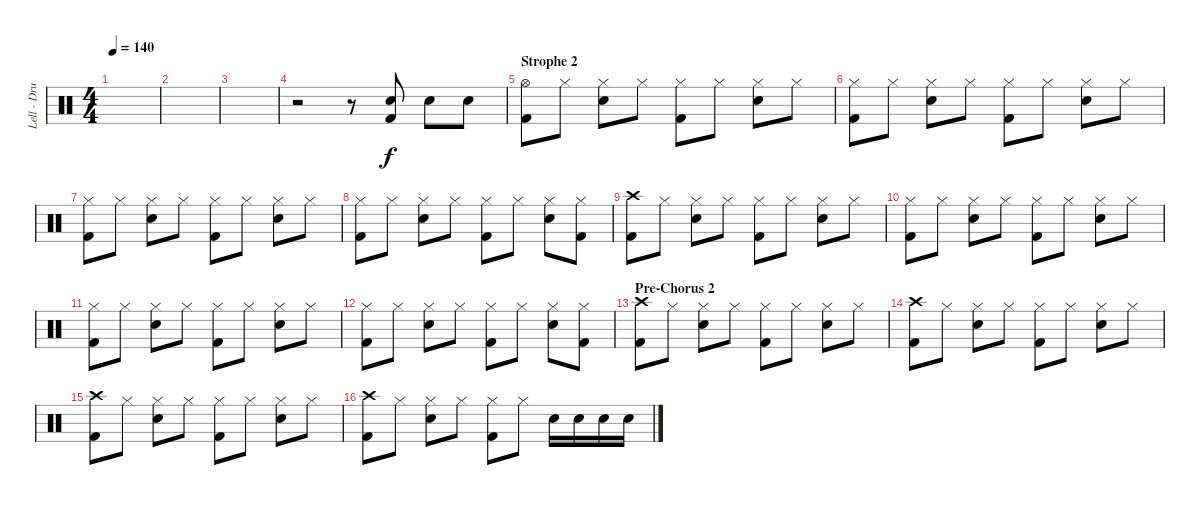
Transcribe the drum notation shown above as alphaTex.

\track ("Lell - Drums" "Lell - Dru") {instrument percussion}
\staff {score}
\articulation defaults
\ts (4 4)
\tempo 140
\clef neutral
\ks c
|
|
|
r.2 r.8 ("Snare (hit) 2" "Kick (hit) 2").8 "Snare (hit) 2".8 "Snare (hit) 2".8 |
\section ("" "Strophe 2")
("Hi-Hat (open)" "Kick (hit) 2").8 "Hi-Hat (closed)".8 ("Hi-Hat (closed)" "Snare (hit) 2").8 "Hi-Hat (closed)".8 ("Hi-Hat (closed)" "Kick (hit) 2").8 "Hi-Hat (closed)".8 ("Hi-Hat (closed)" "Snare (hit) 2").8 "Hi-Hat (closed)".8 |
("Hi-Hat (closed)" "Kick (hit) 2").8 "Hi-Hat (closed)".8 ("Hi-Hat (closed)" "Snare (hit) 2").8 "Hi-Hat (closed)".8 ("Hi-Hat (closed)" "Kick (hit) 2").8 "Hi-Hat (closed)".8 ("Hi-Hat (closed)" "Snare (hit) 2").8 "Hi-Hat (closed)".8 |
("Hi-Hat (closed)" "Kick (hit) 2").8 "Hi-Hat (closed)".8 ("Hi-Hat (closed)" "Snare (hit) 2").8 "Hi-Hat (closed)".8 ("Hi-Hat (closed)" "Kick (hit) 2").8 "Hi-Hat (closed)".8 ("Hi-Hat (closed)" "Snare (hit) 2").8 "Hi-Hat (closed)".8 |
("Hi-Hat (closed)" "Kick (hit) 2").8 "Hi-Hat (closed)".8 ("Hi-Hat (closed)" "Snare (hit) 2").8 "Hi-Hat (closed)".8 ("Hi-Hat (closed)" "Kick (hit) 2").8 "Hi-Hat (closed)".8 ("Hi-Hat (closed)" "Snare (hit) 2").8 ("Hi-Hat (closed)" "Kick (hit) 2").8 |
("Crash high (hit)" "Kick (hit) 2").8 "Hi-Hat (closed)".8 ("Hi-Hat (closed)" "Snare (hit) 2").8 "Hi-Hat (closed)".8 ("Hi-Hat (closed)" "Kick (hit) 2").8 "Hi-Hat (closed)".8 ("Hi-Hat (closed)" "Snare (hit) 2").8 "Hi-Hat (closed)".8 |
("Hi-Hat (closed)" "Kick (hit) 2").8 "Hi-Hat (closed)".8 ("Hi-Hat (closed)" "Snare (hit) 2").8 "Hi-Hat (closed)".8 ("Hi-Hat (closed)" "Kick (hit) 2").8 "Hi-Hat (closed)".8 ("Hi-Hat (closed)" "Snare (hit) 2").8 "Hi-Hat (closed)".8 |
("Hi-Hat (closed)" "Kick (hit) 2").8 "Hi-Hat (closed)".8 ("Hi-Hat (closed)" "Snare (hit) 2").8 "Hi-Hat (closed)".8 ("Hi-Hat (closed)" "Kick (hit) 2").8 "Hi-Hat (closed)".8 ("Hi-Hat (closed)" "Snare (hit) 2").8 "Hi-Hat (closed)".8 |
("Hi-Hat (closed)" "Kick (hit) 2").8 "Hi-Hat (closed)".8 ("Hi-Hat (closed)" "Snare (hit) 2").8 "Hi-Hat (closed)".8 ("Hi-Hat (closed)" "Kick (hit) 2").8 "Hi-Hat (closed)".8 ("Hi-Hat (closed)" "Snare (hit) 2").8 ("Hi-Hat (closed)" "Kick (hit) 2").8 |
\section ("" "Pre-Chorus 2")
("Crash high (hit)" "Kick (hit) 2").8 "Hi-Hat (closed)".8 ("Hi-Hat (closed)" "Snare (hit) 2").8 "Hi-Hat (closed)".8 ("Hi-Hat (closed)" "Kick (hit) 2").8 "Hi-Hat (closed)".8 ("Hi-Hat (closed)" "Snare (hit) 2").8 "Hi-Hat (closed)".8 |
("Crash high (hit)" "Kick (hit) 2").8 "Hi-Hat (closed)".8 ("Hi-Hat (closed)" "Snare (hit) 2").8 "Hi-Hat (closed)".8 ("Hi-Hat (closed)" "Kick (hit) 2").8 "Hi-Hat (closed)".8 ("Hi-Hat (closed)" "Snare (hit) 2").8 "Hi-Hat (closed)".8 |
("Crash high (hit)" "Kick (hit) 2").8 "Hi-Hat (closed)".8 ("Hi-Hat (closed)" "Snare (hit) 2").8 "Hi-Hat (closed)".8 ("Hi-Hat (closed)" "Kick (hit) 2").8 "Hi-Hat (closed)".8 ("Hi-Hat (closed)" "Snare (hit) 2").8 "Hi-Hat (closed)".8 |
("Crash high (hit)" "Kick (hit) 2").8 "Hi-Hat (closed)".8 ("Hi-Hat (closed)" "Snare (hit) 2").8 "Hi-Hat (closed)".8 ("Hi-Hat (closed)" "Kick (hit) 2").8 "Hi-Hat (closed)".8 "Snare (hit) 2".16 "Snare (hit) 2".16 "Snare (hit) 2".16 "Snare (hit) 2".16
